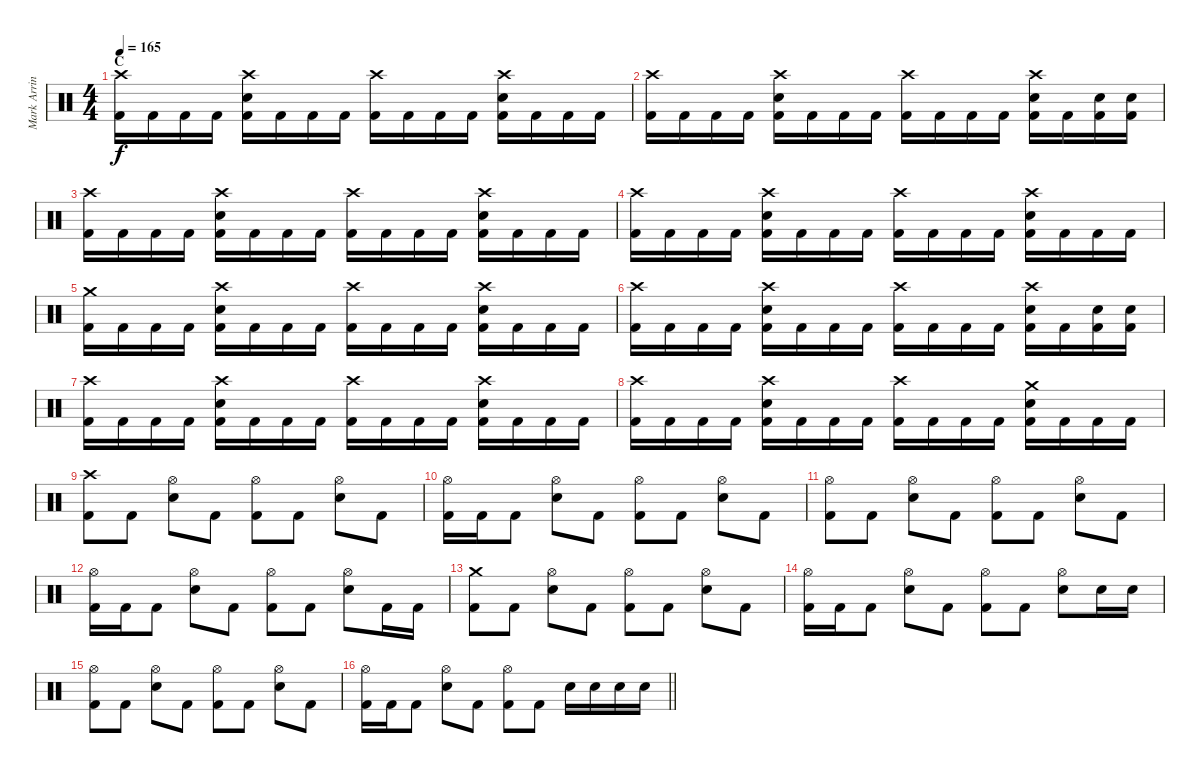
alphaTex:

\track ("Mark Arrington Drums" "Mark Arrin") {instrument percussion}
\staff {score}
\articulation defaults
\ts (4 4)
\section ("" "C")
\tempo 165
\clef neutral
\ks c
("Crash high (hit)" "Kick (hit) 2").16{dy f} "Kick (hit) 2".16 "Kick (hit) 2".16 "Kick (hit) 2".16 ("Crash high (hit)" "Electric Snare (hit)" "Kick (hit) 2").16 "Kick (hit) 2".16 "Kick (hit) 2".16 "Kick (hit) 2".16 ("Crash high (hit)" "Kick (hit) 2").16 "Kick (hit) 2".16 "Kick (hit) 2".16 "Kick (hit) 2".16 ("Crash high (hit)" "Electric Snare (hit)" "Kick (hit) 2").16 "Kick (hit) 2".16 "Kick (hit) 2".16 "Kick (hit) 2".16 |
("Crash high (hit)" "Kick (hit) 2").16 "Kick (hit) 2".16 "Kick (hit) 2".16 "Kick (hit) 2".16 ("Crash high (hit)" "Electric Snare (hit)" "Kick (hit) 2").16 "Kick (hit) 2".16 "Kick (hit) 2".16 "Kick (hit) 2".16 ("Crash high (hit)" "Kick (hit) 2").16 "Kick (hit) 2".16 "Kick (hit) 2".16 "Kick (hit) 2".16 ("Crash high (hit)" "Electric Snare (hit)" "Kick (hit) 2").16 "Kick (hit) 2".16 ("Electric Snare (hit)" "Kick (hit) 2").16 ("Electric Snare (hit)" "Kick (hit) 2").16 |
("Crash high (hit)" "Kick (hit) 2").16 "Kick (hit) 2".16 "Kick (hit) 2".16 "Kick (hit) 2".16 ("Crash high (hit)" "Electric Snare (hit)" "Kick (hit) 2").16 "Kick (hit) 2".16 "Kick (hit) 2".16 "Kick (hit) 2".16 ("Crash high (hit)" "Kick (hit) 2").16 "Kick (hit) 2".16 "Kick (hit) 2".16 "Kick (hit) 2".16 ("Crash high (hit)" "Electric Snare (hit)" "Kick (hit) 2").16 "Kick (hit) 2".16 "Kick (hit) 2".16 "Kick (hit) 2".16 |
("Crash high (hit)" "Kick (hit) 2").16 "Kick (hit) 2".16 "Kick (hit) 2".16 "Kick (hit) 2".16 ("Crash high (hit)" "Electric Snare (hit)" "Kick (hit) 2").16 "Kick (hit) 2".16 "Kick (hit) 2".16 "Kick (hit) 2".16 ("Crash high (hit)" "Kick (hit) 2").16 "Kick (hit) 2".16 "Kick (hit) 2".16 "Kick (hit) 2".16 ("Crash high (hit)" "Electric Snare (hit)" "Kick (hit) 2").16 "Kick (hit) 2".16 "Kick (hit) 2".16 "Kick (hit) 2".16 |
("Crash medium (hit)" "Kick (hit) 2").16 "Kick (hit) 2".16 "Kick (hit) 2".16 "Kick (hit) 2".16 ("Crash high (hit)" "Electric Snare (hit)" "Kick (hit) 2").16 "Kick (hit) 2".16 "Kick (hit) 2".16 "Kick (hit) 2".16 ("Crash high (hit)" "Kick (hit) 2").16 "Kick (hit) 2".16 "Kick (hit) 2".16 "Kick (hit) 2".16 ("Crash high (hit)" "Electric Snare (hit)" "Kick (hit) 2").16 "Kick (hit) 2".16 "Kick (hit) 2".16 "Kick (hit) 2".16 |
("Crash high (hit)" "Kick (hit) 2").16 "Kick (hit) 2".16 "Kick (hit) 2".16 "Kick (hit) 2".16 ("Crash high (hit)" "Electric Snare (hit)" "Kick (hit) 2").16 "Kick (hit) 2".16 "Kick (hit) 2".16 "Kick (hit) 2".16 ("Crash high (hit)" "Kick (hit) 2").16 "Kick (hit) 2".16 "Kick (hit) 2".16 "Kick (hit) 2".16 ("Crash high (hit)" "Electric Snare (hit)" "Kick (hit) 2").16 "Kick (hit) 2".16 ("Electric Snare (hit)" "Kick (hit) 2").16 ("Electric Snare (hit)" "Kick (hit) 2").16 |
("Crash high (hit)" "Kick (hit) 2").16 "Kick (hit) 2".16 "Kick (hit) 2".16 "Kick (hit) 2".16 ("Crash high (hit)" "Electric Snare (hit)" "Kick (hit) 2").16 "Kick (hit) 2".16 "Kick (hit) 2".16 "Kick (hit) 2".16 ("Crash high (hit)" "Kick (hit) 2").16 "Kick (hit) 2".16 "Kick (hit) 2".16 "Kick (hit) 2".16 ("Crash high (hit)" "Electric Snare (hit)" "Kick (hit) 2").16 "Kick (hit) 2".16 "Kick (hit) 2".16 "Kick (hit) 2".16 |
("Crash high (hit)" "Kick (hit) 2").16 "Kick (hit) 2".16 "Kick (hit) 2".16 "Kick (hit) 2".16 ("Crash high (hit)" "Electric Snare (hit)" "Kick (hit) 2").16 "Kick (hit) 2".16 "Kick (hit) 2".16 "Kick (hit) 2".16 ("Crash high (hit)" "Kick (hit) 2").16 "Kick (hit) 2".16 "Kick (hit) 2".16 "Kick (hit) 2".16 ("Crash medium (hit)" "Electric Snare (hit)" "Kick (hit) 2").16 "Kick (hit) 2".16 "Kick (hit) 2".16 "Kick (hit) 2".16 |
("Crash high (hit)" "Kick (hit) 2").8 "Kick (hit) 2".8 ("Hi-Hat (open)" "Electric Snare (hit)").8 "Kick (hit) 2".8 ("Hi-Hat (open)" "Kick (hit) 2").8 "Kick (hit) 2".8 ("Hi-Hat (open)" "Electric Snare (hit)").8 "Kick (hit) 2".8 |
("Hi-Hat (open)" "Kick (hit) 2").16 "Kick (hit) 2".16 "Kick (hit) 2".8 ("Hi-Hat (open)" "Electric Snare (hit)").8 "Kick (hit) 2".8 ("Hi-Hat (open)" "Kick (hit) 2").8 "Kick (hit) 2".8 ("Hi-Hat (open)" "Electric Snare (hit)").8 "Kick (hit) 2".8 |
("Hi-Hat (open)" "Kick (hit) 2").8 "Kick (hit) 2".8 ("Hi-Hat (open)" "Electric Snare (hit)").8 "Kick (hit) 2".8 ("Hi-Hat (open)" "Kick (hit) 2").8 "Kick (hit) 2".8 ("Hi-Hat (open)" "Electric Snare (hit)").8 "Kick (hit) 2".8 |
("Hi-Hat (open)" "Kick (hit) 2").16 "Kick (hit) 2".16 "Kick (hit) 2".8 ("Hi-Hat (open)" "Electric Snare (hit)").8 "Kick (hit) 2".8 ("Hi-Hat (open)" "Kick (hit) 2").8 "Kick (hit) 2".8 ("Hi-Hat (open)" "Electric Snare (hit)").8 "Kick (hit) 2".16 "Kick (hit) 2".16 |
("Crash medium (hit)" "Kick (hit) 2").8 "Kick (hit) 2".8 ("Hi-Hat (open)" "Electric Snare (hit)").8 "Kick (hit) 2".8 ("Hi-Hat (open)" "Kick (hit) 2").8 "Kick (hit) 2".8 ("Hi-Hat (open)" "Electric Snare (hit)").8 "Kick (hit) 2".8 |
("Hi-Hat (open)" "Kick (hit) 2").16 "Kick (hit) 2".16 "Kick (hit) 2".8 ("Hi-Hat (open)" "Electric Snare (hit)").8 "Kick (hit) 2".8 ("Hi-Hat (open)" "Kick (hit) 2").8 "Kick (hit) 2".8 ("Hi-Hat (open)" "Electric Snare (hit)").8 "Electric Snare (hit)".16 "Electric Snare (hit)".16 |
("Hi-Hat (open)" "Kick (hit) 2").8 "Kick (hit) 2".8 ("Hi-Hat (open)" "Electric Snare (hit)").8 "Kick (hit) 2".8 ("Hi-Hat (open)" "Kick (hit) 2").8 "Kick (hit) 2".8 ("Hi-Hat (open)" "Electric Snare (hit)").8 "Kick (hit) 2".8 |
\barLineRight lightlight
("Hi-Hat (open)" "Kick (hit) 2").16 "Kick (hit) 2".16 "Kick (hit) 2".8 ("Hi-Hat (open)" "Electric Snare (hit)").8 "Kick (hit) 2".8 ("Hi-Hat (open)" "Kick (hit) 2").8 "Kick (hit) 2".8 "Electric Snare (hit)".16 "Electric Snare (hit)".16 "Electric Snare (hit)".16 "Electric Snare (hit)".16
